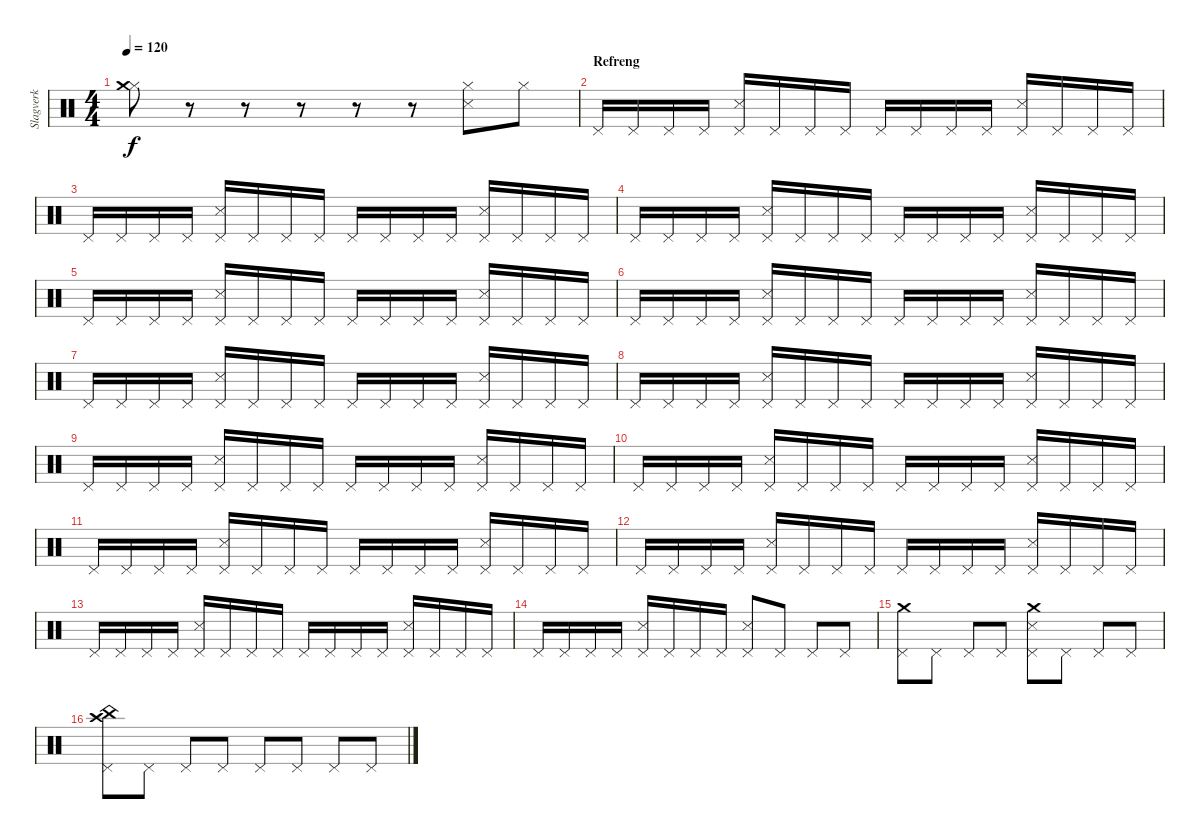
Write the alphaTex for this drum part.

\track ("Slagverk" "Slagverk") {instrument percussion}
\staff {score}
\articulation defaults
\ts (4 4)
\tempo 120
\clef neutral
\ks c
("Hi-Hat (closed)" "Crash medium (hit)").8{dy f} r.8 r.8 r.8 r.8 r.8 ("Hi-Hat (closed)" "Snare (side stick) 3").8 "Hi-Hat (closed)".8 |
\section ("" "Refreng")
"Pedal Hi-Hat (hit)".16 "Pedal Hi-Hat (hit)".16 "Pedal Hi-Hat (hit)".16 "Pedal Hi-Hat (hit)".16 ("Pedal Hi-Hat (hit)" "Snare (side stick) 3").16 "Pedal Hi-Hat (hit)".16 "Pedal Hi-Hat (hit)".16 "Pedal Hi-Hat (hit)".16 "Pedal Hi-Hat (hit)".16 "Pedal Hi-Hat (hit)".16 "Pedal Hi-Hat (hit)".16 "Pedal Hi-Hat (hit)".16 ("Pedal Hi-Hat (hit)" "Snare (side stick) 3").16 "Pedal Hi-Hat (hit)".16 "Pedal Hi-Hat (hit)".16 "Pedal Hi-Hat (hit)".16 |
"Pedal Hi-Hat (hit)".16 "Pedal Hi-Hat (hit)".16 "Pedal Hi-Hat (hit)".16 "Pedal Hi-Hat (hit)".16 ("Pedal Hi-Hat (hit)" "Snare (side stick) 3").16 "Pedal Hi-Hat (hit)".16 "Pedal Hi-Hat (hit)".16 "Pedal Hi-Hat (hit)".16 "Pedal Hi-Hat (hit)".16 "Pedal Hi-Hat (hit)".16 "Pedal Hi-Hat (hit)".16 "Pedal Hi-Hat (hit)".16 ("Pedal Hi-Hat (hit)" "Snare (side stick) 3").16 "Pedal Hi-Hat (hit)".16 "Pedal Hi-Hat (hit)".16 "Pedal Hi-Hat (hit)".16 |
"Pedal Hi-Hat (hit)".16 "Pedal Hi-Hat (hit)".16 "Pedal Hi-Hat (hit)".16 "Pedal Hi-Hat (hit)".16 ("Pedal Hi-Hat (hit)" "Snare (side stick) 3").16 "Pedal Hi-Hat (hit)".16 "Pedal Hi-Hat (hit)".16 "Pedal Hi-Hat (hit)".16 "Pedal Hi-Hat (hit)".16 "Pedal Hi-Hat (hit)".16 "Pedal Hi-Hat (hit)".16 "Pedal Hi-Hat (hit)".16 ("Pedal Hi-Hat (hit)" "Snare (side stick) 3").16 "Pedal Hi-Hat (hit)".16 "Pedal Hi-Hat (hit)".16 "Pedal Hi-Hat (hit)".16 |
"Pedal Hi-Hat (hit)".16 "Pedal Hi-Hat (hit)".16 "Pedal Hi-Hat (hit)".16 "Pedal Hi-Hat (hit)".16 ("Pedal Hi-Hat (hit)" "Snare (side stick) 3").16 "Pedal Hi-Hat (hit)".16 "Pedal Hi-Hat (hit)".16 "Pedal Hi-Hat (hit)".16 "Pedal Hi-Hat (hit)".16 "Pedal Hi-Hat (hit)".16 "Pedal Hi-Hat (hit)".16 "Pedal Hi-Hat (hit)".16 ("Pedal Hi-Hat (hit)" "Snare (side stick) 3").16 "Pedal Hi-Hat (hit)".16 "Pedal Hi-Hat (hit)".16 "Pedal Hi-Hat (hit)".16 |
"Pedal Hi-Hat (hit)".16 "Pedal Hi-Hat (hit)".16 "Pedal Hi-Hat (hit)".16 "Pedal Hi-Hat (hit)".16 ("Pedal Hi-Hat (hit)" "Snare (side stick) 3").16 "Pedal Hi-Hat (hit)".16 "Pedal Hi-Hat (hit)".16 "Pedal Hi-Hat (hit)".16 "Pedal Hi-Hat (hit)".16 "Pedal Hi-Hat (hit)".16 "Pedal Hi-Hat (hit)".16 "Pedal Hi-Hat (hit)".16 ("Pedal Hi-Hat (hit)" "Snare (side stick) 3").16 "Pedal Hi-Hat (hit)".16 "Pedal Hi-Hat (hit)".16 "Pedal Hi-Hat (hit)".16 |
"Pedal Hi-Hat (hit)".16 "Pedal Hi-Hat (hit)".16 "Pedal Hi-Hat (hit)".16 "Pedal Hi-Hat (hit)".16 ("Pedal Hi-Hat (hit)" "Snare (side stick) 3").16 "Pedal Hi-Hat (hit)".16 "Pedal Hi-Hat (hit)".16 "Pedal Hi-Hat (hit)".16 "Pedal Hi-Hat (hit)".16 "Pedal Hi-Hat (hit)".16 "Pedal Hi-Hat (hit)".16 "Pedal Hi-Hat (hit)".16 ("Pedal Hi-Hat (hit)" "Snare (side stick) 3").16 "Pedal Hi-Hat (hit)".16 "Pedal Hi-Hat (hit)".16 "Pedal Hi-Hat (hit)".16 |
"Pedal Hi-Hat (hit)".16 "Pedal Hi-Hat (hit)".16 "Pedal Hi-Hat (hit)".16 "Pedal Hi-Hat (hit)".16 ("Pedal Hi-Hat (hit)" "Snare (side stick) 3").16 "Pedal Hi-Hat (hit)".16 "Pedal Hi-Hat (hit)".16 "Pedal Hi-Hat (hit)".16 "Pedal Hi-Hat (hit)".16 "Pedal Hi-Hat (hit)".16 "Pedal Hi-Hat (hit)".16 "Pedal Hi-Hat (hit)".16 ("Pedal Hi-Hat (hit)" "Snare (side stick) 3").16 "Pedal Hi-Hat (hit)".16 "Pedal Hi-Hat (hit)".16 "Pedal Hi-Hat (hit)".16 |
"Pedal Hi-Hat (hit)".16 "Pedal Hi-Hat (hit)".16 "Pedal Hi-Hat (hit)".16 "Pedal Hi-Hat (hit)".16 ("Pedal Hi-Hat (hit)" "Snare (side stick) 3").16 "Pedal Hi-Hat (hit)".16 "Pedal Hi-Hat (hit)".16 "Pedal Hi-Hat (hit)".16 "Pedal Hi-Hat (hit)".16 "Pedal Hi-Hat (hit)".16 "Pedal Hi-Hat (hit)".16 "Pedal Hi-Hat (hit)".16 ("Pedal Hi-Hat (hit)" "Snare (side stick) 3").16 "Pedal Hi-Hat (hit)".16 "Pedal Hi-Hat (hit)".16 "Pedal Hi-Hat (hit)".16 |
"Pedal Hi-Hat (hit)".16 "Pedal Hi-Hat (hit)".16 "Pedal Hi-Hat (hit)".16 "Pedal Hi-Hat (hit)".16 ("Pedal Hi-Hat (hit)" "Snare (side stick) 3").16 "Pedal Hi-Hat (hit)".16 "Pedal Hi-Hat (hit)".16 "Pedal Hi-Hat (hit)".16 "Pedal Hi-Hat (hit)".16 "Pedal Hi-Hat (hit)".16 "Pedal Hi-Hat (hit)".16 "Pedal Hi-Hat (hit)".16 ("Pedal Hi-Hat (hit)" "Snare (side stick) 3").16 "Pedal Hi-Hat (hit)".16 "Pedal Hi-Hat (hit)".16 "Pedal Hi-Hat (hit)".16 |
"Pedal Hi-Hat (hit)".16 "Pedal Hi-Hat (hit)".16 "Pedal Hi-Hat (hit)".16 "Pedal Hi-Hat (hit)".16 ("Pedal Hi-Hat (hit)" "Snare (side stick) 3").16 "Pedal Hi-Hat (hit)".16 "Pedal Hi-Hat (hit)".16 "Pedal Hi-Hat (hit)".16 "Pedal Hi-Hat (hit)".16 "Pedal Hi-Hat (hit)".16 "Pedal Hi-Hat (hit)".16 "Pedal Hi-Hat (hit)".16 ("Pedal Hi-Hat (hit)" "Snare (side stick) 3").16 "Pedal Hi-Hat (hit)".16 "Pedal Hi-Hat (hit)".16 "Pedal Hi-Hat (hit)".16 |
"Pedal Hi-Hat (hit)".16 "Pedal Hi-Hat (hit)".16 "Pedal Hi-Hat (hit)".16 "Pedal Hi-Hat (hit)".16 ("Pedal Hi-Hat (hit)" "Snare (side stick) 3").16 "Pedal Hi-Hat (hit)".16 "Pedal Hi-Hat (hit)".16 "Pedal Hi-Hat (hit)".16 "Pedal Hi-Hat (hit)".16 "Pedal Hi-Hat (hit)".16 "Pedal Hi-Hat (hit)".16 "Pedal Hi-Hat (hit)".16 ("Pedal Hi-Hat (hit)" "Snare (side stick) 3").16 "Pedal Hi-Hat (hit)".16 "Pedal Hi-Hat (hit)".16 "Pedal Hi-Hat (hit)".16 |
"Pedal Hi-Hat (hit)".16 "Pedal Hi-Hat (hit)".16 "Pedal Hi-Hat (hit)".16 "Pedal Hi-Hat (hit)".16 ("Pedal Hi-Hat (hit)" "Snare (side stick) 3").16 "Pedal Hi-Hat (hit)".16 "Pedal Hi-Hat (hit)".16 "Pedal Hi-Hat (hit)".16 "Pedal Hi-Hat (hit)".16 "Pedal Hi-Hat (hit)".16 "Pedal Hi-Hat (hit)".16 "Pedal Hi-Hat (hit)".16 ("Pedal Hi-Hat (hit)" "Snare (side stick) 3").16 "Pedal Hi-Hat (hit)".16 "Pedal Hi-Hat (hit)".16 "Pedal Hi-Hat (hit)".16 |
"Pedal Hi-Hat (hit)".16 "Pedal Hi-Hat (hit)".16 "Pedal Hi-Hat (hit)".16 "Pedal Hi-Hat (hit)".16 ("Pedal Hi-Hat (hit)" "Snare (side stick) 3").16 "Pedal Hi-Hat (hit)".16 "Pedal Hi-Hat (hit)".16 "Pedal Hi-Hat (hit)".16 ("Pedal Hi-Hat (hit)" "Snare (side stick) 3").8 "Pedal Hi-Hat (hit)".8 "Pedal Hi-Hat (hit)".8 "Pedal Hi-Hat (hit)".8 |
("Pedal Hi-Hat (hit)" "Crash medium (hit)").8 "Pedal Hi-Hat (hit)".8 "Pedal Hi-Hat (hit)".8 "Pedal Hi-Hat (hit)".8 ("Pedal Hi-Hat (hit)" "Snare (side stick) 3" "Crash medium (hit)").8 "Pedal Hi-Hat (hit)".8 "Pedal Hi-Hat (hit)".8 "Pedal Hi-Hat (hit)".8 |
("Pedal Hi-Hat (hit)" "Crash high (hit)" "China (hit)").8 "Pedal Hi-Hat (hit)".8 "Pedal Hi-Hat (hit)".8 "Pedal Hi-Hat (hit)".8 "Pedal Hi-Hat (hit)".8 "Pedal Hi-Hat (hit)".8 "Pedal Hi-Hat (hit)".8 "Pedal Hi-Hat (hit)".8
